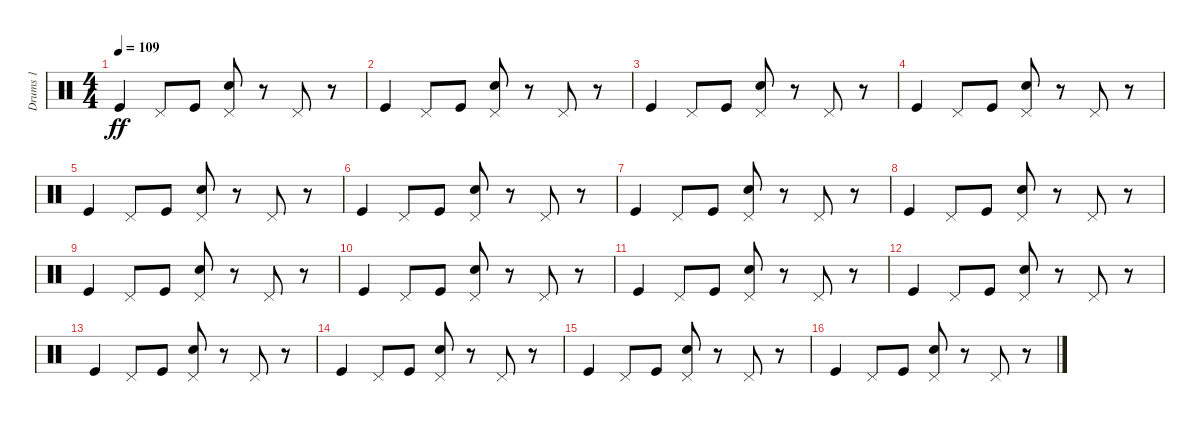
\track ("Drums 1" "Drums 1") {instrument percussion}
\staff {score}
\articulation defaults
\ts (4 4)
\tempo 109
\clef neutral
\ks c "Kick (hit)".4{dy ff} "Pedal Hi-Hat (hit)".8 "Kick (hit)".8
("Electric Snare (hit)" "Pedal Hi-Hat (hit)").8 r.8 "Pedal Hi-Hat (hit)".8 r.8 |
"Kick (hit)".4 "Pedal Hi-Hat (hit)".8 "Kick (hit)".8 ("Electric Snare (hit)" "Pedal Hi-Hat (hit)").8 r.8 "Pedal Hi-Hat (hit)".8 r.8 |
"Kick (hit)".4 "Pedal Hi-Hat (hit)".8 "Kick (hit)".8 ("Electric Snare (hit)" "Pedal Hi-Hat (hit)").8 r.8 "Pedal Hi-Hat (hit)".8 r.8 |
"Kick (hit)".4 "Pedal Hi-Hat (hit)".8 "Kick (hit)".8 ("Electric Snare (hit)" "Pedal Hi-Hat (hit)").8 r.8 "Pedal Hi-Hat (hit)".8 r.8 |
"Kick (hit)".4 "Pedal Hi-Hat (hit)".8 "Kick (hit)".8 ("Electric Snare (hit)" "Pedal Hi-Hat (hit)").8 r.8 "Pedal Hi-Hat (hit)".8 r.8 |
"Kick (hit)".4 "Pedal Hi-Hat (hit)".8 "Kick (hit)".8 ("Electric Snare (hit)" "Pedal Hi-Hat (hit)").8 r.8 "Pedal Hi-Hat (hit)".8 r.8 |
"Kick (hit)".4 "Pedal Hi-Hat (hit)".8 "Kick (hit)".8 ("Electric Snare (hit)" "Pedal Hi-Hat (hit)").8 r.8 "Pedal Hi-Hat (hit)".8 r.8 |
"Kick (hit)".4 "Pedal Hi-Hat (hit)".8 "Kick (hit)".8 ("Electric Snare (hit)" "Pedal Hi-Hat (hit)").8 r.8 "Pedal Hi-Hat (hit)".8 r.8 |
"Kick (hit)".4 "Pedal Hi-Hat (hit)".8 "Kick (hit)".8 ("Electric Snare (hit)" "Pedal Hi-Hat (hit)").8 r.8 "Pedal Hi-Hat (hit)".8 r.8 |
"Kick (hit)".4 "Pedal Hi-Hat (hit)".8 "Kick (hit)".8 ("Electric Snare (hit)" "Pedal Hi-Hat (hit)").8 r.8 "Pedal Hi-Hat (hit)".8 r.8 |
"Kick (hit)".4 "Pedal Hi-Hat (hit)".8 "Kick (hit)".8 ("Electric Snare (hit)" "Pedal Hi-Hat (hit)").8 r.8 "Pedal Hi-Hat (hit)".8 r.8 |
"Kick (hit)".4 "Pedal Hi-Hat (hit)".8 "Kick (hit)".8 ("Electric Snare (hit)" "Pedal Hi-Hat (hit)").8 r.8 "Pedal Hi-Hat (hit)".8 r.8 |
"Kick (hit)".4 "Pedal Hi-Hat (hit)".8 "Kick (hit)".8 ("Electric Snare (hit)" "Pedal Hi-Hat (hit)").8 r.8 "Pedal Hi-Hat (hit)".8 r.8 |
"Kick (hit)".4 "Pedal Hi-Hat (hit)".8 "Kick (hit)".8 ("Electric Snare (hit)" "Pedal Hi-Hat (hit)").8 r.8 "Pedal Hi-Hat (hit)".8 r.8 |
"Kick (hit)".4 "Pedal Hi-Hat (hit)".8 "Kick (hit)".8 ("Electric Snare (hit)" "Pedal Hi-Hat (hit)").8 r.8 "Pedal Hi-Hat (hit)".8 r.8 |
"Kick (hit)".4 "Pedal Hi-Hat (hit)".8 "Kick (hit)".8 ("Electric Snare (hit)" "Pedal Hi-Hat (hit)").8 r.8 "Pedal Hi-Hat (hit)".8 r.8
